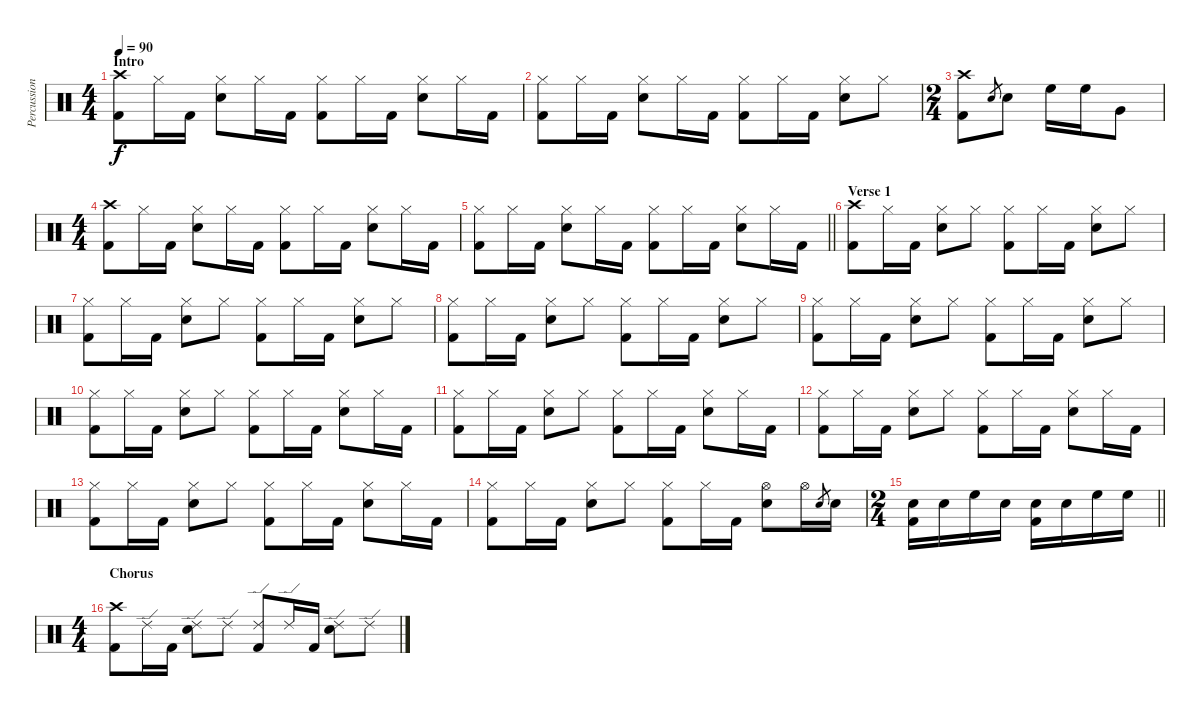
\track ("Percussion" "Percussion") {instrument percussion}
\staff {score}
\articulation defaults
\ts (4 4)
\section ("" "Intro")
\tempo 90
\clef neutral
\ks c
("Crash high (hit)" "Kick (hit) 2").8{dy f} "Hi-Hat (closed)".16 "Kick (hit) 2".16 ("Hi-Hat (closed)" "Electric Snare (hit)").8 "Hi-Hat (closed)".16 "Kick (hit) 2".16 ("Hi-Hat (closed)" "Kick (hit) 2").8 "Hi-Hat (closed)".16 "Kick (hit) 2".16 ("Hi-Hat (closed)" "Electric Snare (hit)").8 "Hi-Hat (closed)".16 "Kick (hit) 2".16 |
("Hi-Hat (closed)" "Kick (hit) 2").8 "Hi-Hat (closed)".16 "Kick (hit) 2".16 ("Hi-Hat (closed)" "Electric Snare (hit)").8 "Hi-Hat (closed)".16 "Kick (hit) 2".16 ("Hi-Hat (closed)" "Kick (hit) 2").8 "Hi-Hat (closed)".16 "Kick (hit) 2".16 ("Hi-Hat (closed)" "Electric Snare (hit)").8 "Hi-Hat (closed)".8 |
\ts (2 4)
("Crash high (hit)" "Kick (hit) 2").8 "Electric Snare (hit)".8{gr} "Electric Snare (hit)".8 "High Floor Tom (hit)".16 "High Floor Tom (hit)".16 "Very Low Tom (hit)".8 |
\ts (4 4)
("Crash high (hit)" "Kick (hit) 2").8 "Hi-Hat (closed)".16 "Kick (hit) 2".16 ("Hi-Hat (closed)" "Electric Snare (hit)").8 "Hi-Hat (closed)".16 "Kick (hit) 2".16 ("Hi-Hat (closed)" "Kick (hit) 2").8 "Hi-Hat (closed)".16 "Kick (hit) 2".16 ("Hi-Hat (closed)" "Electric Snare (hit)").8 "Hi-Hat (closed)".16 "Kick (hit) 2".16 |
\barLineRight lightlight
("Hi-Hat (closed)" "Kick (hit) 2").8 "Hi-Hat (closed)".16 "Kick (hit) 2".16 ("Hi-Hat (closed)" "Electric Snare (hit)").8 "Hi-Hat (closed)".16 "Kick (hit) 2".16 ("Hi-Hat (closed)" "Kick (hit) 2").8 "Hi-Hat (closed)".16 "Kick (hit) 2".16 ("Hi-Hat (closed)" "Electric Snare (hit)").8 "Hi-Hat (closed)".16 "Kick (hit) 2".16 |
\section ("" "Verse 1")
("Crash high (hit)" "Kick (hit) 2").8 "Hi-Hat (closed)".16 "Kick (hit) 2".16 ("Hi-Hat (closed)" "Electric Snare (hit)").8 "Hi-Hat (closed)".8 ("Hi-Hat (closed)" "Kick (hit) 2").8 "Hi-Hat (closed)".16 "Kick (hit) 2".16 ("Hi-Hat (closed)" "Electric Snare (hit)").8 "Hi-Hat (closed)".8 |
("Hi-Hat (closed)" "Kick (hit) 2").8 "Hi-Hat (closed)".16 "Kick (hit) 2".16 ("Hi-Hat (closed)" "Electric Snare (hit)").8 "Hi-Hat (closed)".8 ("Hi-Hat (closed)" "Kick (hit) 2").8 "Hi-Hat (closed)".16 "Kick (hit) 2".16 ("Hi-Hat (closed)" "Electric Snare (hit)").8 "Hi-Hat (closed)".8 |
("Hi-Hat (closed)" "Kick (hit) 2").8 "Hi-Hat (closed)".16 "Kick (hit) 2".16 ("Hi-Hat (closed)" "Electric Snare (hit)").8 "Hi-Hat (closed)".8 ("Hi-Hat (closed)" "Kick (hit) 2").8 "Hi-Hat (closed)".16 "Kick (hit) 2".16 ("Hi-Hat (closed)" "Electric Snare (hit)").8 "Hi-Hat (closed)".8 |
("Hi-Hat (closed)" "Kick (hit) 2").8 "Hi-Hat (closed)".16 "Kick (hit) 2".16 ("Hi-Hat (closed)" "Electric Snare (hit)").8 "Hi-Hat (closed)".8 ("Hi-Hat (closed)" "Kick (hit) 2").8 "Hi-Hat (closed)".16 "Kick (hit) 2".16 ("Hi-Hat (closed)" "Electric Snare (hit)").8 "Hi-Hat (closed)".8 |
("Hi-Hat (closed)" "Kick (hit) 2").8 "Hi-Hat (closed)".16 "Kick (hit) 2".16 ("Hi-Hat (closed)" "Electric Snare (hit)").8 "Hi-Hat (closed)".8 ("Hi-Hat (closed)" "Kick (hit) 2").8 "Hi-Hat (closed)".16 "Kick (hit) 2".16 ("Hi-Hat (closed)" "Electric Snare (hit)").8 "Hi-Hat (closed)".16 "Kick (hit) 2".16 |
("Hi-Hat (closed)" "Kick (hit) 2").8 "Hi-Hat (closed)".16 "Kick (hit) 2".16 ("Hi-Hat (closed)" "Electric Snare (hit)").8 "Hi-Hat (closed)".8 ("Hi-Hat (closed)" "Kick (hit) 2").8 "Hi-Hat (closed)".16 "Kick (hit) 2".16 ("Hi-Hat (closed)" "Electric Snare (hit)").8 "Hi-Hat (closed)".16 "Kick (hit) 2".16 |
("Hi-Hat (closed)" "Kick (hit) 2").8 "Hi-Hat (closed)".16 "Kick (hit) 2".16 ("Hi-Hat (closed)" "Electric Snare (hit)").8 "Hi-Hat (closed)".8 ("Hi-Hat (closed)" "Kick (hit) 2").8 "Hi-Hat (closed)".16 "Kick (hit) 2".16 ("Hi-Hat (closed)" "Electric Snare (hit)").8 "Hi-Hat (closed)".16 "Kick (hit) 2".16 |
("Hi-Hat (closed)" "Kick (hit) 2").8 "Hi-Hat (closed)".16 "Kick (hit) 2".16 ("Hi-Hat (closed)" "Electric Snare (hit)").8 "Hi-Hat (closed)".8 ("Hi-Hat (closed)" "Kick (hit) 2").8 "Hi-Hat (closed)".16 "Kick (hit) 2".16 ("Hi-Hat (closed)" "Electric Snare (hit)").8 "Hi-Hat (closed)".16 "Kick (hit) 2".16 |
("Hi-Hat (closed)" "Kick (hit) 2").8 "Hi-Hat (closed)".16 "Kick (hit) 2".16 ("Hi-Hat (closed)" "Electric Snare (hit)").8 "Hi-Hat (closed)".8 ("Hi-Hat (closed)" "Kick (hit) 2").8 "Hi-Hat (closed)".16 "Kick (hit) 2".16 ("Hi-Hat (open)" "Electric Snare (hit)").8 "Hi-Hat (open)".16 "Electric Snare (hit)".8{gr} "Electric Snare (hit)".16 |
\ts (2 4)
\barLineRight lightlight
("Electric Snare (hit)" "Kick (hit) 2").16 "Electric Snare (hit)".16 "High Floor Tom (hit)".16 "Electric Snare (hit)".16 ("Electric Snare (hit)" "Kick (hit) 2").16 "Electric Snare (hit)".16 "High Floor Tom (hit)".16 "High Floor Tom (hit)".16 |
\ts (4 4)
\section ("" "Chorus")
("Crash high (hit)" "Kick (hit) 2").8 "Ride (edge) 2".16 "Kick (hit) 2".16 ("Ride (edge) 2" "Electric Snare (hit)").8 "Ride (edge) 2".8 ("Ride (edge) 2" "Kick (hit) 2").8 "Ride (edge) 2".16 "Kick (hit) 2".16 ("Ride (edge) 2" "Electric Snare (hit)").8 "Ride (edge) 2".8
